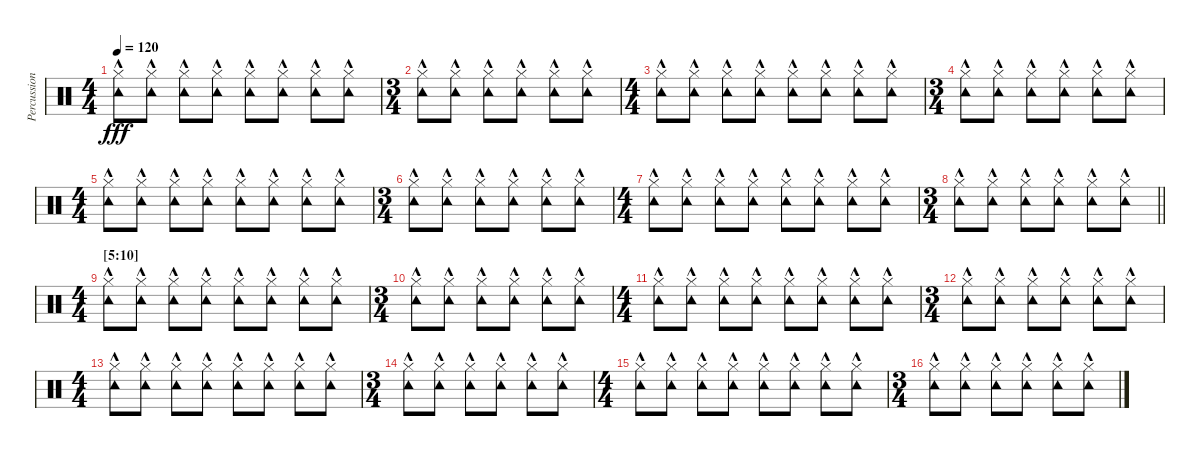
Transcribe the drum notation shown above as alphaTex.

\track ("Percussion" "Percussion") {instrument percussion}
\staff {score}
\articulation defaults
\ts (4 4)
\tempo 120
\clef neutral
\ks c
("Tambourine (hit)"{hac} "Hi-Hat (closed)").8{dy fff} ("Tambourine (hit)"{hac} "Hi-Hat (closed)").8 ("Tambourine (hit)"{hac} "Hi-Hat (closed)").8 ("Tambourine (hit)"{hac} "Hi-Hat (closed)").8 ("Tambourine (hit)"{hac} "Hi-Hat (closed)").8 ("Tambourine (hit)"{hac} "Hi-Hat (closed)").8 ("Tambourine (hit)"{hac} "Hi-Hat (closed)").8 ("Tambourine (hit)"{hac} "Hi-Hat (closed)").8 |
\ts (3 4)
("Tambourine (hit)"{hac} "Hi-Hat (closed)").8 ("Tambourine (hit)"{hac} "Hi-Hat (closed)").8 ("Tambourine (hit)"{hac} "Hi-Hat (closed)").8 ("Tambourine (hit)"{hac} "Hi-Hat (closed)").8 ("Tambourine (hit)"{hac} "Hi-Hat (closed)").8 ("Tambourine (hit)"{hac} "Hi-Hat (closed)").8 |
\ts (4 4)
("Tambourine (hit)"{hac} "Hi-Hat (closed)").8 ("Tambourine (hit)"{hac} "Hi-Hat (closed)").8 ("Tambourine (hit)"{hac} "Hi-Hat (closed)").8 ("Tambourine (hit)"{hac} "Hi-Hat (closed)").8 ("Tambourine (hit)"{hac} "Hi-Hat (closed)").8 ("Tambourine (hit)"{hac} "Hi-Hat (closed)").8 ("Tambourine (hit)"{hac} "Hi-Hat (closed)").8 ("Tambourine (hit)"{hac} "Hi-Hat (closed)").8 |
\ts (3 4)
("Tambourine (hit)"{hac} "Hi-Hat (closed)").8 ("Tambourine (hit)"{hac} "Hi-Hat (closed)").8 ("Tambourine (hit)"{hac} "Hi-Hat (closed)").8 ("Tambourine (hit)"{hac} "Hi-Hat (closed)").8 ("Tambourine (hit)"{hac} "Hi-Hat (closed)").8 ("Tambourine (hit)"{hac} "Hi-Hat (closed)").8 |
\ts (4 4)
("Tambourine (hit)"{hac} "Hi-Hat (closed)").8 ("Tambourine (hit)"{hac} "Hi-Hat (closed)").8 ("Tambourine (hit)"{hac} "Hi-Hat (closed)").8 ("Tambourine (hit)"{hac} "Hi-Hat (closed)").8 ("Tambourine (hit)"{hac} "Hi-Hat (closed)").8 ("Tambourine (hit)"{hac} "Hi-Hat (closed)").8 ("Tambourine (hit)"{hac} "Hi-Hat (closed)").8 ("Tambourine (hit)"{hac} "Hi-Hat (closed)").8 |
\ts (3 4)
("Tambourine (hit)"{hac} "Hi-Hat (closed)").8 ("Tambourine (hit)"{hac} "Hi-Hat (closed)").8 ("Tambourine (hit)"{hac} "Hi-Hat (closed)").8 ("Tambourine (hit)"{hac} "Hi-Hat (closed)").8 ("Tambourine (hit)"{hac} "Hi-Hat (closed)").8 ("Tambourine (hit)"{hac} "Hi-Hat (closed)").8 |
\ts (4 4)
("Tambourine (hit)"{hac} "Hi-Hat (closed)").8 ("Tambourine (hit)"{hac} "Hi-Hat (closed)").8 ("Tambourine (hit)"{hac} "Hi-Hat (closed)").8 ("Tambourine (hit)"{hac} "Hi-Hat (closed)").8 ("Tambourine (hit)"{hac} "Hi-Hat (closed)").8 ("Tambourine (hit)"{hac} "Hi-Hat (closed)").8 ("Tambourine (hit)"{hac} "Hi-Hat (closed)").8 ("Tambourine (hit)"{hac} "Hi-Hat (closed)").8 |
\ts (3 4)
\barLineRight lightlight
("Tambourine (hit)"{hac} "Hi-Hat (closed)").8 ("Tambourine (hit)"{hac} "Hi-Hat (closed)").8 ("Tambourine (hit)"{hac} "Hi-Hat (closed)").8 ("Tambourine (hit)"{hac} "Hi-Hat (closed)").8 ("Tambourine (hit)"{hac} "Hi-Hat (closed)").8 ("Tambourine (hit)"{hac} "Hi-Hat (closed)").8 |
\ts (4 4)
\section ("" "[5:10]")
("Tambourine (hit)"{hac} "Hi-Hat (closed)").8 ("Tambourine (hit)"{hac} "Hi-Hat (closed)").8 ("Tambourine (hit)"{hac} "Hi-Hat (closed)").8 ("Tambourine (hit)"{hac} "Hi-Hat (closed)").8 ("Tambourine (hit)"{hac} "Hi-Hat (closed)").8 ("Tambourine (hit)"{hac} "Hi-Hat (closed)").8 ("Tambourine (hit)"{hac} "Hi-Hat (closed)").8 ("Tambourine (hit)"{hac} "Hi-Hat (closed)").8 |
\ts (3 4)
("Tambourine (hit)"{hac} "Hi-Hat (closed)").8 ("Tambourine (hit)"{hac} "Hi-Hat (closed)").8 ("Tambourine (hit)"{hac} "Hi-Hat (closed)").8 ("Tambourine (hit)"{hac} "Hi-Hat (closed)").8 ("Tambourine (hit)"{hac} "Hi-Hat (closed)").8 ("Tambourine (hit)"{hac} "Hi-Hat (closed)").8 |
\ts (4 4)
("Tambourine (hit)"{hac} "Hi-Hat (closed)").8 ("Tambourine (hit)"{hac} "Hi-Hat (closed)").8 ("Tambourine (hit)"{hac} "Hi-Hat (closed)").8 ("Tambourine (hit)"{hac} "Hi-Hat (closed)").8 ("Tambourine (hit)"{hac} "Hi-Hat (closed)").8 ("Tambourine (hit)"{hac} "Hi-Hat (closed)").8 ("Tambourine (hit)"{hac} "Hi-Hat (closed)").8 ("Tambourine (hit)"{hac} "Hi-Hat (closed)").8 |
\ts (3 4)
("Tambourine (hit)"{hac} "Hi-Hat (closed)").8 ("Tambourine (hit)"{hac} "Hi-Hat (closed)").8 ("Tambourine (hit)"{hac} "Hi-Hat (closed)").8 ("Tambourine (hit)"{hac} "Hi-Hat (closed)").8 ("Tambourine (hit)"{hac} "Hi-Hat (closed)").8 ("Tambourine (hit)"{hac} "Hi-Hat (closed)").8 |
\ts (4 4)
("Tambourine (hit)"{hac} "Hi-Hat (closed)").8 ("Tambourine (hit)"{hac} "Hi-Hat (closed)").8 ("Tambourine (hit)"{hac} "Hi-Hat (closed)").8 ("Tambourine (hit)"{hac} "Hi-Hat (closed)").8 ("Tambourine (hit)"{hac} "Hi-Hat (closed)").8 ("Tambourine (hit)"{hac} "Hi-Hat (closed)").8 ("Tambourine (hit)"{hac} "Hi-Hat (closed)").8 ("Tambourine (hit)"{hac} "Hi-Hat (closed)").8 |
\ts (3 4)
("Tambourine (hit)"{hac} "Hi-Hat (closed)").8 ("Tambourine (hit)"{hac} "Hi-Hat (closed)").8 ("Tambourine (hit)"{hac} "Hi-Hat (closed)").8 ("Tambourine (hit)"{hac} "Hi-Hat (closed)").8 ("Tambourine (hit)"{hac} "Hi-Hat (closed)").8 ("Tambourine (hit)"{hac} "Hi-Hat (closed)").8 |
\ts (4 4)
("Tambourine (hit)"{hac} "Hi-Hat (closed)").8 ("Tambourine (hit)"{hac} "Hi-Hat (closed)").8 ("Tambourine (hit)"{hac} "Hi-Hat (closed)").8 ("Tambourine (hit)"{hac} "Hi-Hat (closed)").8 ("Tambourine (hit)"{hac} "Hi-Hat (closed)").8 ("Tambourine (hit)"{hac} "Hi-Hat (closed)").8 ("Tambourine (hit)"{hac} "Hi-Hat (closed)").8 ("Tambourine (hit)"{hac} "Hi-Hat (closed)").8 |
\ts (3 4)
("Tambourine (hit)"{hac} "Hi-Hat (closed)").8 ("Tambourine (hit)"{hac} "Hi-Hat (closed)").8 ("Tambourine (hit)"{hac} "Hi-Hat (closed)").8 ("Tambourine (hit)"{hac} "Hi-Hat (closed)").8 ("Tambourine (hit)"{hac} "Hi-Hat (closed)").8 ("Tambourine (hit)"{hac} "Hi-Hat (closed)").8
